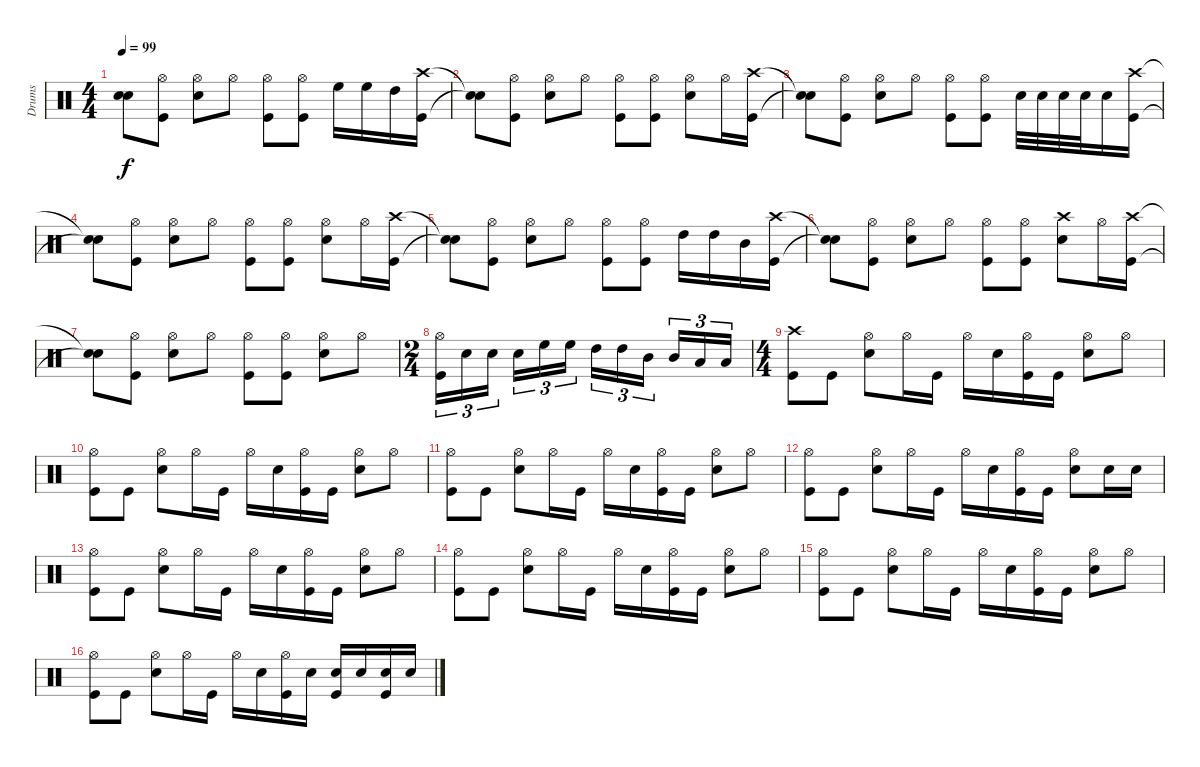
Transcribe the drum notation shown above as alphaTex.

\track ("Drums" "Drums") {instrument percussion}
\staff {score}
\articulation defaults
\ts (4 4)
\tempo 99
\clef neutral
\ks c
("Snare (hit)"{t} "Snare (hit)"{t}).8{dy f} ("Hi-Hat (open)" "Kick (hit)").8 ("Hi-Hat (open)" "Electric Snare (hit)").8 "Hi-Hat (open)".8 ("Hi-Hat (open)" "Kick (hit)").8 ("Hi-Hat (open)" "Kick (hit)").8 "High Floor Tom (hit)".16 "High Floor Tom (hit)".16 "High Tom (hit)".16 ("Crash high (hit)" "Kick (hit)").16 |
("Snare (hit)"{t} "Snare (hit)"{t}).8 ("Hi-Hat (open)" "Kick (hit)").8 ("Hi-Hat (open)" "Electric Snare (hit)").8 "Hi-Hat (open)".8 ("Hi-Hat (open)" "Kick (hit)").8 ("Hi-Hat (open)" "Kick (hit)").8 ("Hi-Hat (open)" "Electric Snare (hit)").8 "Hi-Hat (open)".16 ("Crash high (hit)" "Kick (hit)").16 |
("Snare (hit)"{t} "Snare (hit)"{t}).8 ("Hi-Hat (open)" "Kick (hit)").8 ("Hi-Hat (open)" "Electric Snare (hit)").8 "Hi-Hat (open)".8 ("Hi-Hat (open)" "Kick (hit)").8 ("Hi-Hat (open)" "Kick (hit)").8 "Electric Snare (hit)".32 "Electric Snare (hit)".32 "Electric Snare (hit)".32 "Electric Snare (hit)".32 "Electric Snare (hit)".16 ("Crash high (hit)" "Kick (hit)").16 |
("Snare (hit)"{t} "Snare (hit)"{t}).8 ("Hi-Hat (open)" "Kick (hit)").8 ("Hi-Hat (open)" "Electric Snare (hit)").8 "Hi-Hat (open)".8 ("Hi-Hat (open)" "Kick (hit)").8 ("Hi-Hat (open)" "Kick (hit)").8 ("Hi-Hat (open)" "Electric Snare (hit)").8 "Hi-Hat (open)".16 ("Crash high (hit)" "Kick (hit)").16 |
("Snare (hit)"{t} "Snare (hit)"{t}).8 ("Hi-Hat (open)" "Kick (hit)").8 ("Hi-Hat (open)" "Electric Snare (hit)").8 "Hi-Hat (open)".8 ("Hi-Hat (open)" "Kick (hit)").8 ("Hi-Hat (open)" "Kick (hit)").8 "High Tom (hit)".16 "High Tom (hit)".16 "Mid Tom (hit)".16 ("Crash high (hit)" "Kick (hit)").16 |
("Snare (hit)"{t} "Snare (hit)"{t}).8 ("Hi-Hat (open)" "Kick (hit)").8 ("Hi-Hat (open)" "Electric Snare (hit)").8 "Hi-Hat (open)".8 ("Hi-Hat (open)" "Kick (hit)").8 ("Hi-Hat (open)" "Kick (hit)").8 ("Crash high (hit)" "Electric Snare (hit)").8 "Hi-Hat (open)".16 ("Crash high (hit)" "Kick (hit)").16 |
("Snare (hit)"{t} "Snare (hit)"{t}).8 ("Hi-Hat (open)" "Kick (hit)").8 ("Hi-Hat (open)" "Electric Snare (hit)").8 "Hi-Hat (open)".8 ("Hi-Hat (open)" "Kick (hit)").8 ("Hi-Hat (open)" "Kick (hit)").8 ("Hi-Hat (open)" "Electric Snare (hit)").8 "Hi-Hat (open)".8 |
\ts (2 4)
("Hi-Hat (open)" "Kick (hit)").16{tu (3 2)} "Electric Snare (hit)".16{tu (3 2)} "Electric Snare (hit)".16{tu (3 2)} "Electric Snare (hit)".16{tu (3 2)} "High Floor Tom (hit)".16{tu (3 2)} "High Floor Tom (hit)".16{tu (3 2)} "High Tom (hit)".16{tu (3 2)} "High Tom (hit)".16{tu (3 2)} "Mid Tom (hit)".16{tu (3 2)} "Mid Tom (hit)".16{tu (3 2)} "Low Tom (hit)".16{tu (3 2)} "Low Tom (hit)".16{tu (3 2)} |
\ts (4 4)
("Crash high (hit)" "Kick (hit)").8 "Kick (hit)".8 ("Hi-Hat (open)" "Electric Snare (hit)").8 "Hi-Hat (open)".16 "Kick (hit)".16 "Hi-Hat (open)".16 "Electric Snare (hit)".16 ("Hi-Hat (open)" "Kick (hit)").16 "Kick (hit)".16 ("Hi-Hat (open)" "Electric Snare (hit)").8 "Hi-Hat (open)".8 |
("Hi-Hat (open)" "Kick (hit)").8 "Kick (hit)".8 ("Hi-Hat (open)" "Electric Snare (hit)").8 "Hi-Hat (open)".16 "Kick (hit)".16 "Hi-Hat (open)".16 "Electric Snare (hit)".16 ("Hi-Hat (open)" "Kick (hit)").16 "Kick (hit)".16 ("Hi-Hat (open)" "Electric Snare (hit)").8 "Hi-Hat (open)".8 |
("Hi-Hat (open)" "Kick (hit)").8 "Kick (hit)".8 ("Hi-Hat (open)" "Electric Snare (hit)").8 "Hi-Hat (open)".16 "Kick (hit)".16 "Hi-Hat (open)".16 "Electric Snare (hit)".16 ("Hi-Hat (open)" "Kick (hit)").16 "Kick (hit)".16 ("Hi-Hat (open)" "Electric Snare (hit)").8 "Hi-Hat (open)".8 |
("Hi-Hat (open)" "Kick (hit)").8 "Kick (hit)".8 ("Hi-Hat (open)" "Electric Snare (hit)").8 "Hi-Hat (open)".16 "Kick (hit)".16 "Hi-Hat (open)".16 "Electric Snare (hit)".16 ("Hi-Hat (open)" "Kick (hit)").16 "Kick (hit)".16 ("Hi-Hat (open)" "Electric Snare (hit)").8 "Electric Snare (hit)".16 "Electric Snare (hit)".16 |
("Hi-Hat (open)" "Kick (hit)").8 "Kick (hit)".8 ("Hi-Hat (open)" "Electric Snare (hit)").8 "Hi-Hat (open)".16 "Kick (hit)".16 "Hi-Hat (open)".16 "Electric Snare (hit)".16 ("Hi-Hat (open)" "Kick (hit)").16 "Kick (hit)".16 ("Hi-Hat (open)" "Electric Snare (hit)").8 "Hi-Hat (open)".8 |
("Hi-Hat (open)" "Kick (hit)").8 "Kick (hit)".8 ("Hi-Hat (open)" "Electric Snare (hit)").8 "Hi-Hat (open)".16 "Kick (hit)".16 "Hi-Hat (open)".16 "Electric Snare (hit)".16 ("Hi-Hat (open)" "Kick (hit)").16 "Kick (hit)".16 ("Hi-Hat (open)" "Electric Snare (hit)").8 "Hi-Hat (open)".8 |
("Hi-Hat (open)" "Kick (hit)").8 "Kick (hit)".8 ("Hi-Hat (open)" "Electric Snare (hit)").8 "Hi-Hat (open)".16 "Kick (hit)".16 "Hi-Hat (open)".16 "Electric Snare (hit)".16 ("Hi-Hat (open)" "Kick (hit)").16 "Kick (hit)".16 ("Hi-Hat (open)" "Electric Snare (hit)").8 "Hi-Hat (open)".8 |
("Hi-Hat (open)" "Kick (hit)").8 "Kick (hit)".8 ("Hi-Hat (open)" "Electric Snare (hit)").8 "Hi-Hat (open)".16 "Kick (hit)".16 "Hi-Hat (open)".16 "Electric Snare (hit)".16 ("Hi-Hat (open)" "Kick (hit)").16 "Electric Snare (hit)".16 ("Electric Snare (hit)" "Kick (hit)").16 "Electric Snare (hit)".16 ("Electric Snare (hit)" "Kick (hit)").16 "Electric Snare (hit)".16
